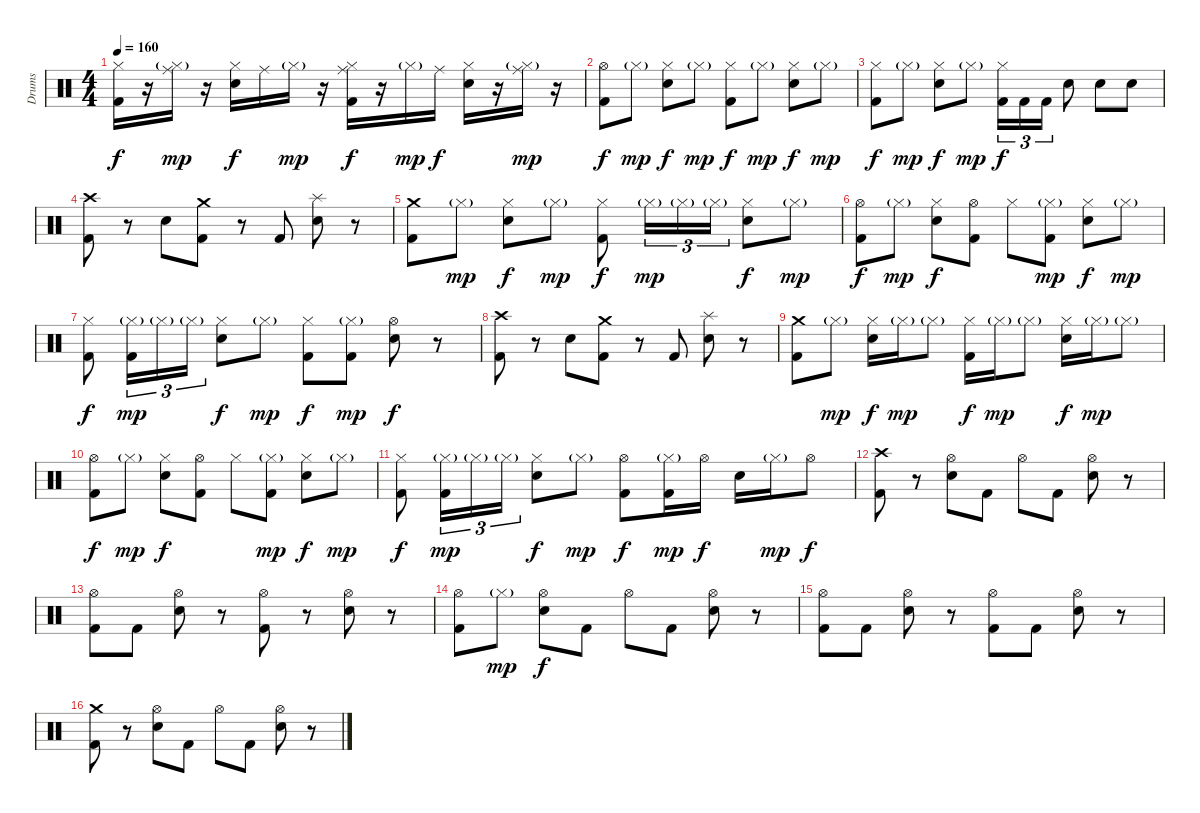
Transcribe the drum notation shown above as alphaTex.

\track ("Drums" "Drums") {instrument percussion}
\staff {score}
\articulation defaults
\ts (4 4)
\tempo 160
\clef neutral
\ks c
("Hi-Hat (closed)" "Kick (hit) 2").16{dy f} r.16 ("Ride (middle)" "Hi-Hat (closed)"{g}).16{dy mp} r.16 ("Hi-Hat (closed)" "Snare (hit) 2").16{dy f} "Ride (middle)".16 "Hi-Hat (closed)"{g}.16{dy mp} r.16 ("Ride (middle)" "Hi-Hat (closed)" "Kick (hit) 2").16{dy f} r.16 "Hi-Hat (closed)"{g}.16{dy mp} "Ride (middle)".16{dy f} ("Hi-Hat (closed)" "Snare (hit) 2").16 r.16 ("Ride (middle)" "Hi-Hat (closed)"{g}).16{dy mp} r.16 |
("Hi-Hat (open)" "Kick (hit) 2").8{dy f} "Hi-Hat (closed)"{g}.8{dy mp} ("Hi-Hat (closed)" "Snare (hit) 2").8{dy f} "Hi-Hat (closed)"{g}.8{dy mp} ("Hi-Hat (closed)" "Kick (hit) 2").8{dy f} "Hi-Hat (closed)"{g}.8{dy mp} ("Hi-Hat (closed)" "Snare (hit) 2").8{dy f} "Hi-Hat (closed)"{g}.8{dy mp} |
("Hi-Hat (closed)" "Kick (hit) 2").8{dy f} "Hi-Hat (closed)"{g}.8{dy mp} ("Hi-Hat (closed)" "Snare (hit) 2").8{dy f} "Hi-Hat (closed)"{g}.8{dy mp} ("Hi-Hat (closed)" "Kick (hit) 2").16{tu (3 2) dy f} "Kick (hit) 2".16{tu (3 2)} "Kick (hit) 2".16{tu (3 2)} "Snare (hit) 2".8 "Snare (hit) 2".8 "Snare (hit) 2".8 |
("Crash high (hit)" "Kick (hit) 2").8 r.8 "Snare (hit) 2".8 ("Crash medium (hit)" "Kick (hit) 2").8 r.8 "Kick (hit) 2".8 ("Splash (hit)" "Snare (hit) 2").8 r.8 |
("Crash medium (hit)" "Kick (hit) 2").8 "Hi-Hat (closed)"{g}.8{dy mp} ("Hi-Hat (closed)" "Snare (hit) 2").8{dy f} "Hi-Hat (closed)"{g}.8{dy mp} ("Hi-Hat (closed)" "Kick (hit) 2").8{dy f} "Hi-Hat (closed)"{g}.16{tu (3 2) dy mp} "Hi-Hat (closed)"{g}.16{tu (3 2)} "Hi-Hat (closed)"{g}.16{tu (3 2)} ("Hi-Hat (closed)" "Snare (hit) 2").8{dy f} "Hi-Hat (closed)"{g}.8{dy mp} |
("Hi-Hat (open)" "Kick (hit) 2").8{dy f} "Hi-Hat (closed)"{g}.8{dy mp} ("Hi-Hat (closed)" "Snare (hit) 2").8{dy f} ("Hi-Hat (open)" "Kick (hit) 2").8 "Hi-Hat (closed)".8 ("Hi-Hat (closed)"{g} "Kick (hit) 2").8{dy mp} ("Hi-Hat (closed)" "Snare (hit) 2").8{dy f} "Hi-Hat (closed)"{g}.8{dy mp} |
("Hi-Hat (closed)" "Kick (hit) 2").8{dy f} ("Hi-Hat (closed)"{g} "Kick (hit) 2").16{tu (3 2) dy mp} "Hi-Hat (closed)"{g}.16{tu (3 2)} "Hi-Hat (closed)"{g}.16{tu (3 2)} ("Hi-Hat (closed)" "Snare (hit) 2").8{dy f} "Hi-Hat (closed)"{g}.8{dy mp} ("Hi-Hat (closed)" "Kick (hit) 2").8{dy f} ("Hi-Hat (closed)"{g} "Kick (hit) 2").8{dy mp} ("Hi-Hat (open)" "Snare (hit) 2").8{dy f} r.8 |
("Crash high (hit)" "Kick (hit) 2").8 r.8 "Snare (hit) 2".8 ("Crash medium (hit)" "Kick (hit) 2").8 r.8 "Kick (hit) 2".8 ("Splash (hit)" "Snare (hit) 2").8 r.8 |
("Crash medium (hit)" "Kick (hit) 2").8 "Hi-Hat (closed)"{g}.8{dy mp} ("Hi-Hat (closed)" "Snare (hit) 2").16{dy f} "Hi-Hat (closed)"{g}.16{dy mp} "Hi-Hat (closed)"{g}.8 ("Hi-Hat (closed)" "Kick (hit) 2").16{dy f} "Hi-Hat (closed)"{g}.16{dy mp} "Hi-Hat (closed)"{g}.8 ("Hi-Hat (closed)" "Snare (hit) 2").16{dy f} "Hi-Hat (closed)"{g}.16{dy mp} "Hi-Hat (closed)"{g}.8 |
("Hi-Hat (open)" "Kick (hit) 2").8{dy f} "Hi-Hat (closed)"{g}.8{dy mp} ("Hi-Hat (closed)" "Snare (hit) 2").8{dy f} ("Hi-Hat (open)" "Kick (hit) 2").8 "Hi-Hat (closed)".8 ("Hi-Hat (closed)"{g} "Kick (hit) 2").8{dy mp} ("Hi-Hat (closed)" "Snare (hit) 2").8{dy f} "Hi-Hat (closed)"{g}.8{dy mp} |
("Hi-Hat (closed)" "Kick (hit) 2").8{dy f} ("Hi-Hat (closed)"{g} "Kick (hit) 2").16{tu (3 2) dy mp} "Hi-Hat (closed)"{g}.16{tu (3 2)} "Hi-Hat (closed)"{g}.16{tu (3 2)} ("Hi-Hat (closed)" "Snare (hit) 2").8{dy f} "Hi-Hat (closed)"{g}.8{dy mp} ("Hi-Hat (open)" "Kick (hit) 2").8{dy f} ("Hi-Hat (closed)"{g} "Kick (hit) 2").16{dy mp} "Hi-Hat (open)".16{dy f} "Snare (hit) 2".16 "Hi-Hat (closed)"{g}.16{dy mp} "Hi-Hat (open)".8{dy f} |
("Crash high (hit)" "Kick (hit) 2").8 r.8 ("Hi-Hat (open)" "Snare (hit) 2").8 "Kick (hit) 2".8 "Hi-Hat (open)".8 "Kick (hit) 2".8 ("Hi-Hat (open)" "Snare (hit) 2").8 r.8 |
("Hi-Hat (open)" "Kick (hit) 2").8 "Kick (hit) 2".8 ("Hi-Hat (open)" "Snare (hit) 2").8 r.8 ("Hi-Hat (open)" "Kick (hit) 2").8 r.8 ("Hi-Hat (open)" "Snare (hit) 2").8 r.8 |
("Hi-Hat (open)" "Kick (hit) 2").8 "Hi-Hat (closed)"{g}.8{dy mp} ("Hi-Hat (open)" "Snare (hit) 2").8{dy f} "Kick (hit) 2".8 "Hi-Hat (open)".8 "Kick (hit) 2".8 ("Hi-Hat (open)" "Snare (hit) 2").8 r.8 |
("Hi-Hat (open)" "Kick (hit) 2").8 "Kick (hit) 2".8 ("Hi-Hat (open)" "Snare (hit) 2").8 r.8 ("Hi-Hat (open)" "Kick (hit) 2").8 "Kick (hit) 2".8 ("Hi-Hat (open)" "Snare (hit) 2").8 r.8 |
("Crash medium (hit)" "Kick (hit) 2").8 r.8 ("Hi-Hat (open)" "Snare (hit) 2").8 "Kick (hit) 2".8 "Hi-Hat (open)".8 "Kick (hit) 2".8 ("Hi-Hat (open)" "Snare (hit) 2").8 r.8
